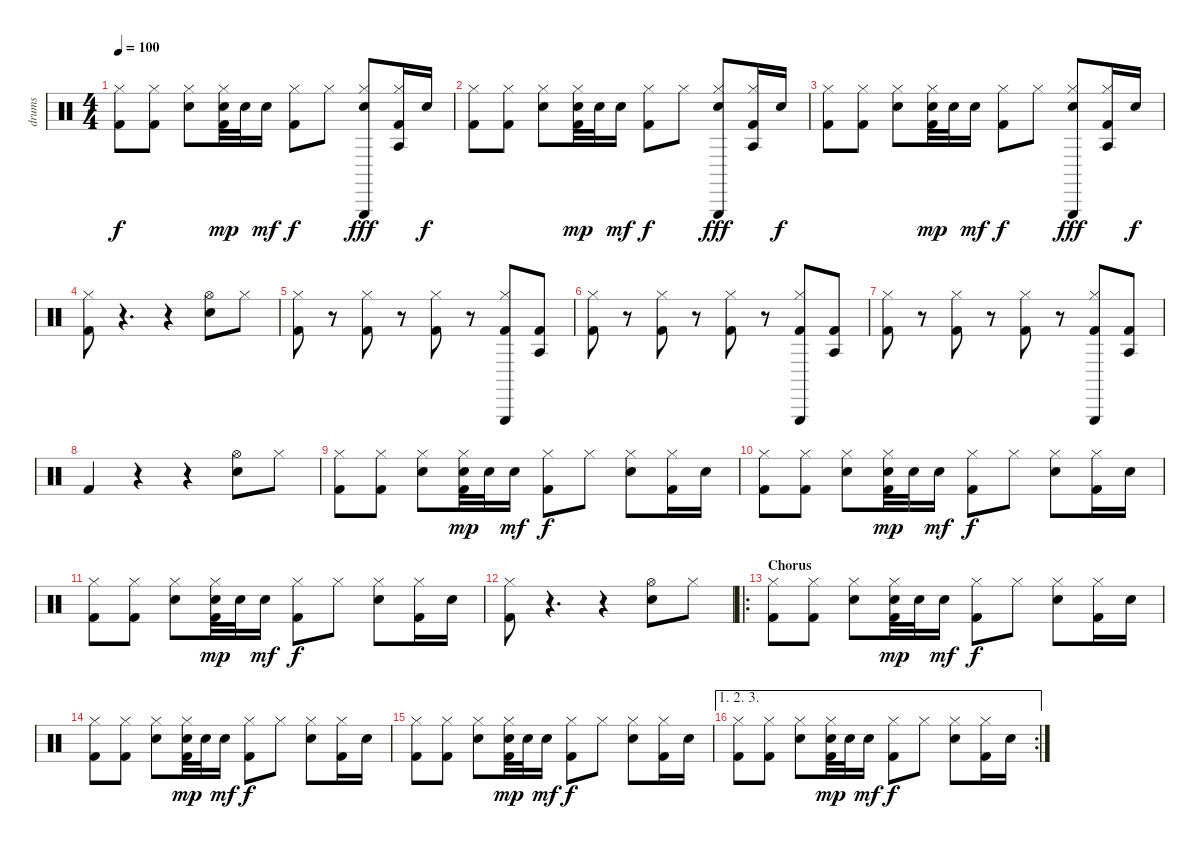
\track ("drums" "drums") {instrument percussion}
\staff {score}
\articulation defaults
\ts (4 4)
\tempo 100
\clef neutral
\ks c
("Hi-Hat (closed)" "Kick (hit) 2").8{dy f} ("Hi-Hat (closed)" "Kick (hit) 2").8 ("Hi-Hat (closed)" "Electric Snare (hit)").8 ("Hi-Hat (closed)" "Electric Snare (hit)" "Kick (hit) 2").32{dy mp} "Electric Snare (hit)".32 "Electric Snare (hit)".16{dy mf} ("Hi-Hat (closed)" "Kick (hit) 2").8{dy f} "Hi-Hat (closed)".8 ("Triangle (hit)" "Hi-Hat (closed)" "Electric Snare (hit)").8{dy fff} ("Agogo tow (hit)" "Hi-Hat (closed)" "Kick (hit) 2").16 "Electric Snare (hit)".16{dy f} |
("Hi-Hat (closed)" "Kick (hit) 2").8 ("Hi-Hat (closed)" "Kick (hit) 2").8 ("Hi-Hat (closed)" "Electric Snare (hit)").8 ("Hi-Hat (closed)" "Electric Snare (hit)" "Kick (hit) 2").32{dy mp} "Electric Snare (hit)".32 "Electric Snare (hit)".16{dy mf} ("Hi-Hat (closed)" "Kick (hit) 2").8{dy f} "Hi-Hat (closed)".8 ("Triangle (hit)" "Hi-Hat (closed)" "Electric Snare (hit)").8{dy fff} ("Agogo tow (hit)" "Hi-Hat (closed)" "Kick (hit) 2").16 "Electric Snare (hit)".16{dy f} |
("Hi-Hat (closed)" "Kick (hit) 2").8 ("Hi-Hat (closed)" "Kick (hit) 2").8 ("Hi-Hat (closed)" "Electric Snare (hit)").8 ("Hi-Hat (closed)" "Electric Snare (hit)" "Kick (hit) 2").32{dy mp} "Electric Snare (hit)".32 "Electric Snare (hit)".16{dy mf} ("Hi-Hat (closed)" "Kick (hit) 2").8{dy f} "Hi-Hat (closed)".8 ("Triangle (hit)" "Hi-Hat (closed)" "Electric Snare (hit)").8{dy fff} ("Agogo tow (hit)" "Hi-Hat (closed)" "Kick (hit) 2").16 "Electric Snare (hit)".16{dy f} |
("Hi-Hat (closed)" "Kick (hit) 2").8 r.4{d} r.4 ("Hi-Hat (open)" "Electric Snare (hit)").8 "Hi-Hat (closed)".8 |
("Hi-Hat (closed)" "Kick (hit) 2").8 r.8 ("Hi-Hat (closed)" "Kick (hit) 2").8 r.8 ("Hi-Hat (closed)" "Kick (hit) 2").8 r.8 ("Triangle (hit)" "Hi-Hat (closed)" "Kick (hit) 2").8 ("Agogo tow (hit)" "Kick (hit) 2").8 |
("Hi-Hat (closed)" "Kick (hit) 2").8 r.8 ("Hi-Hat (closed)" "Kick (hit) 2").8 r.8 ("Hi-Hat (closed)" "Kick (hit) 2").8 r.8 ("Triangle (hit)" "Hi-Hat (closed)" "Kick (hit) 2").8 ("Agogo tow (hit)" "Kick (hit) 2").8 |
("Hi-Hat (closed)" "Kick (hit) 2").8 r.8 ("Hi-Hat (closed)" "Kick (hit) 2").8 r.8 ("Hi-Hat (closed)" "Kick (hit) 2").8 r.8 ("Triangle (hit)" "Hi-Hat (closed)" "Kick (hit) 2").8 ("Agogo tow (hit)" "Kick (hit) 2").8 |
"Kick (hit) 2".4 r.4 r.4 ("Hi-Hat (open)" "Electric Snare (hit)").8 "Hi-Hat (closed)".8 |
("Hi-Hat (closed)" "Kick (hit) 2").8 ("Hi-Hat (closed)" "Kick (hit) 2").8 ("Hi-Hat (closed)" "Electric Snare (hit)").8 ("Hi-Hat (closed)" "Electric Snare (hit)" "Kick (hit) 2").32{dy mp} "Electric Snare (hit)".32 "Electric Snare (hit)".16{dy mf} ("Hi-Hat (closed)" "Kick (hit) 2").8{dy f} "Hi-Hat (closed)".8 ("Hi-Hat (closed)" "Electric Snare (hit)").8 ("Hi-Hat (closed)" "Kick (hit) 2").16 "Electric Snare (hit)".16 |
("Hi-Hat (closed)" "Kick (hit) 2").8 ("Hi-Hat (closed)" "Kick (hit) 2").8 ("Hi-Hat (closed)" "Electric Snare (hit)").8 ("Hi-Hat (closed)" "Electric Snare (hit)" "Kick (hit) 2").32{dy mp} "Electric Snare (hit)".32 "Electric Snare (hit)".16{dy mf} ("Hi-Hat (closed)" "Kick (hit) 2").8{dy f} "Hi-Hat (closed)".8 ("Hi-Hat (closed)" "Electric Snare (hit)").8 ("Hi-Hat (closed)" "Kick (hit) 2").16 "Electric Snare (hit)".16 |
("Hi-Hat (closed)" "Kick (hit) 2").8 ("Hi-Hat (closed)" "Kick (hit) 2").8 ("Hi-Hat (closed)" "Electric Snare (hit)").8 ("Hi-Hat (closed)" "Electric Snare (hit)" "Kick (hit) 2").32{dy mp} "Electric Snare (hit)".32 "Electric Snare (hit)".16{dy mf} ("Hi-Hat (closed)" "Kick (hit) 2").8{dy f} "Hi-Hat (closed)".8 ("Hi-Hat (closed)" "Electric Snare (hit)").8 ("Hi-Hat (closed)" "Kick (hit) 2").16 "Electric Snare (hit)".16 |
("Hi-Hat (closed)" "Kick (hit) 2").8 r.4{d} r.4 ("Hi-Hat (open)" "Electric Snare (hit)").8 "Hi-Hat (closed)".8 |
\ro
\section ("" "Chorus")
("Hi-Hat (closed)" "Kick (hit) 2").8 ("Hi-Hat (closed)" "Kick (hit) 2").8 ("Hi-Hat (closed)" "Electric Snare (hit)").8 ("Hi-Hat (closed)" "Electric Snare (hit)" "Kick (hit) 2").32{dy mp} "Electric Snare (hit)".32 "Electric Snare (hit)".16{dy mf} ("Hi-Hat (closed)" "Kick (hit) 2").8{dy f} "Hi-Hat (closed)".8 ("Hi-Hat (closed)" "Electric Snare (hit)").8 ("Hi-Hat (closed)" "Kick (hit) 2").16 "Electric Snare (hit)".16 |
("Hi-Hat (closed)" "Kick (hit) 2").8 ("Hi-Hat (closed)" "Kick (hit) 2").8 ("Hi-Hat (closed)" "Electric Snare (hit)").8 ("Hi-Hat (closed)" "Electric Snare (hit)" "Kick (hit) 2").32{dy mp} "Electric Snare (hit)".32 "Electric Snare (hit)".16{dy mf} ("Hi-Hat (closed)" "Kick (hit) 2").8{dy f} "Hi-Hat (closed)".8 ("Hi-Hat (closed)" "Electric Snare (hit)").8 ("Hi-Hat (closed)" "Kick (hit) 2").16 "Electric Snare (hit)".16 |
("Hi-Hat (closed)" "Kick (hit) 2").8 ("Hi-Hat (closed)" "Kick (hit) 2").8 ("Hi-Hat (closed)" "Electric Snare (hit)").8 ("Hi-Hat (closed)" "Electric Snare (hit)" "Kick (hit) 2").32{dy mp} "Electric Snare (hit)".32 "Electric Snare (hit)".16{dy mf} ("Hi-Hat (closed)" "Kick (hit) 2").8{dy f} "Hi-Hat (closed)".8 ("Hi-Hat (closed)" "Electric Snare (hit)").8 ("Hi-Hat (closed)" "Kick (hit) 2").16 "Electric Snare (hit)".16 |
\ae (1 2 3)
\rc 2
("Hi-Hat (closed)" "Kick (hit) 2").8 ("Hi-Hat (closed)" "Kick (hit) 2").8 ("Hi-Hat (closed)" "Electric Snare (hit)").8 ("Hi-Hat (closed)" "Electric Snare (hit)" "Kick (hit) 2").32{dy mp} "Electric Snare (hit)".32 "Electric Snare (hit)".16{dy mf} ("Hi-Hat (closed)" "Kick (hit) 2").8{dy f} "Hi-Hat (closed)".8 ("Hi-Hat (closed)" "Electric Snare (hit)").8 ("Hi-Hat (closed)" "Kick (hit) 2").16 "Electric Snare (hit)".16
